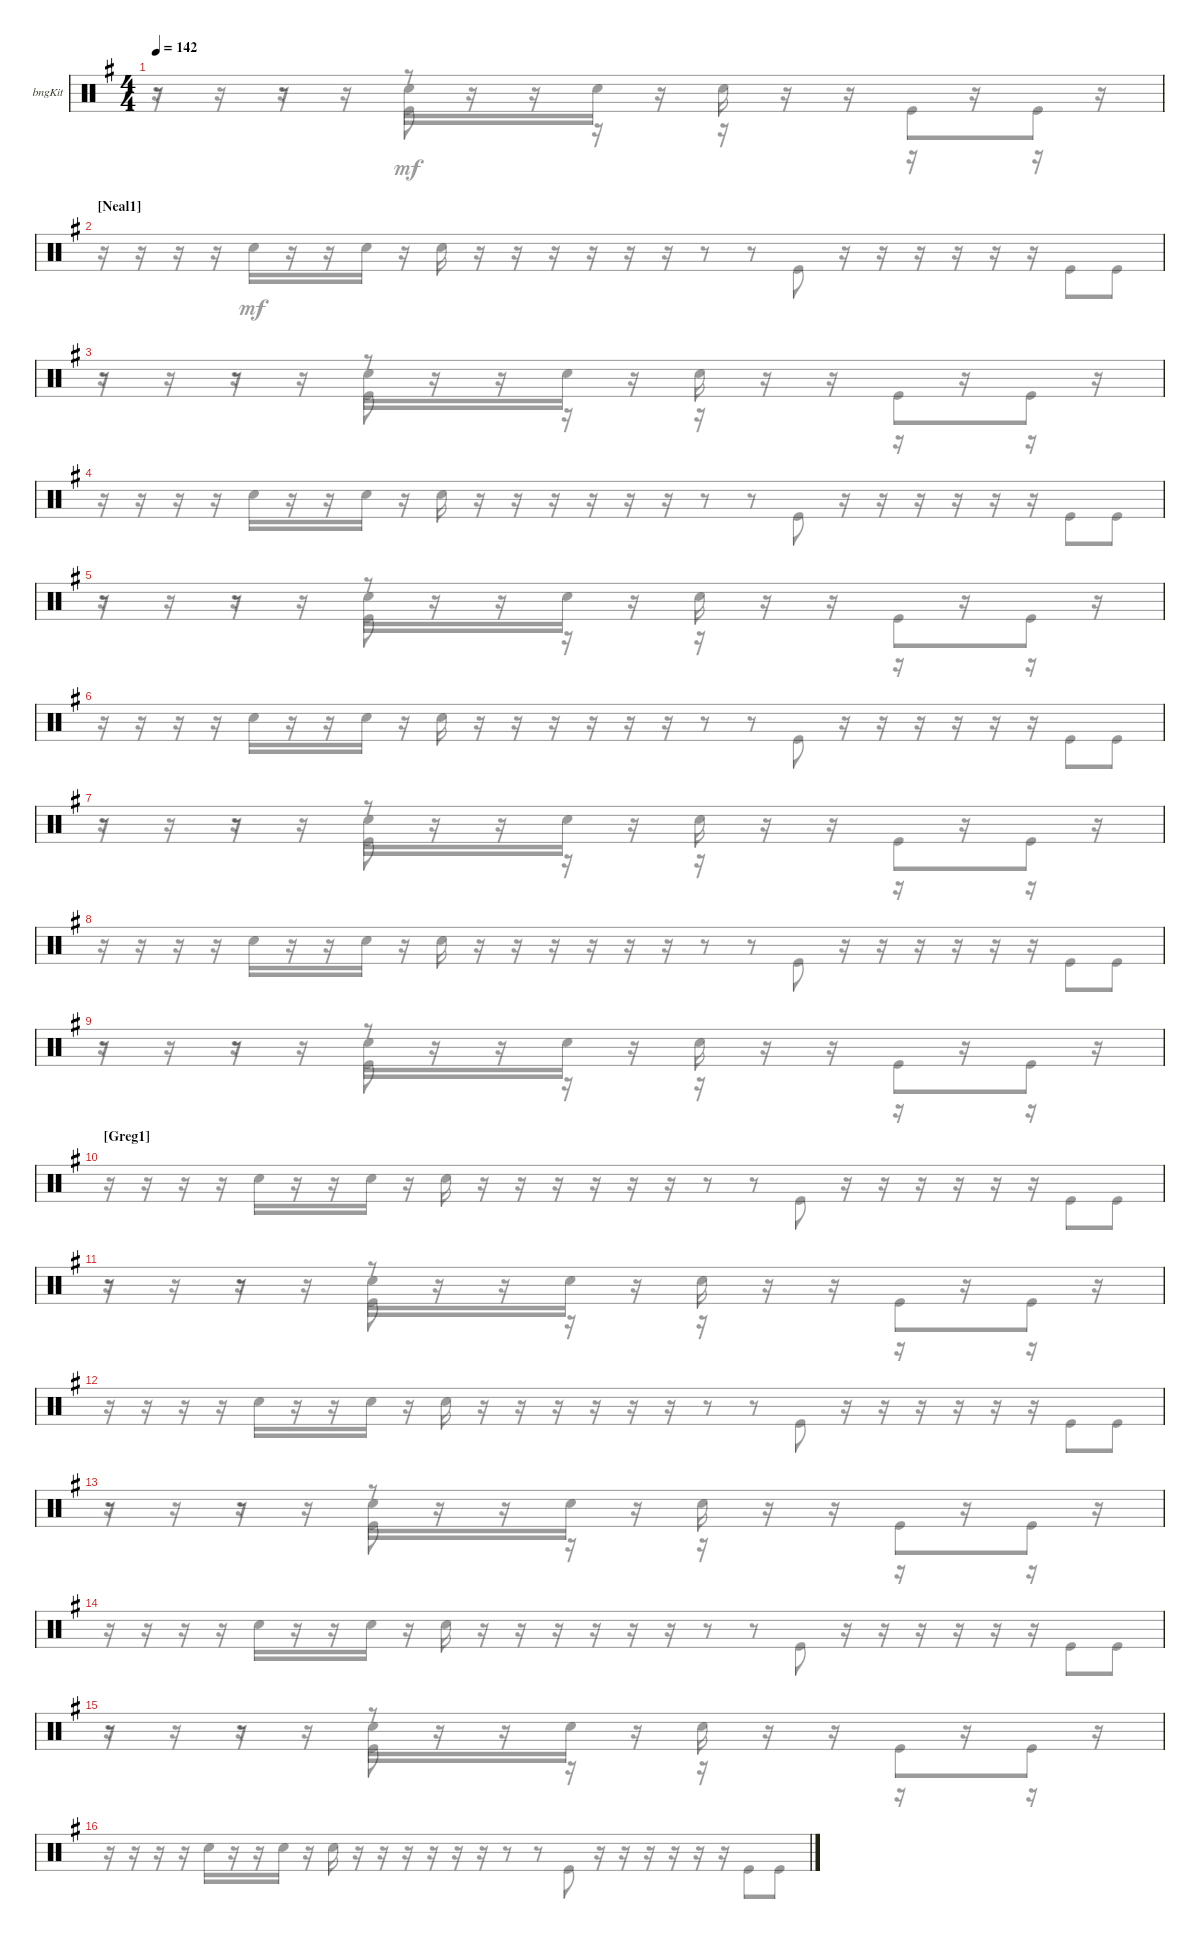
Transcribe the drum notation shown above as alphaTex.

\bracketExtendMode groupsimilarinstruments
\firstSystemTrackNameOrientation horizontal
\otherSystemsTrackNameOrientation horizontal
\track ("Bongos" "bngKit") {instrument percussion}
\staff {score}
\articulation defaults
\voice
\ts (4 4)
\tempo 142
\clef neutral
\ks eminor
|
\section ("" "[Neal1] ")
|
|
|
|
|
|
|
|
\section ("" "[Greg1] ")
|
|
|
|
|
|
\voice
\clef neutral
\ks eminor
r.8{dy mf} r.8 r.8 |
r.16 r.16 r.16 r.16 "Snare (hit) 2".16 r.16 r.16 "Snare (hit) 2".16 r.16 "Snare (hit) 2".16 r.16 r.16 r.16 r.16 r.16 r.16 r.8 r.8 "Kick (hit)".8 r.16 r.16 r.16 r.16 r.16 r.16 "Kick (hit)".8 "Kick (hit)".8 |
r.8 r.8 r.8 |
r.16 r.16 r.16 r.16 "Snare (hit) 2".16 r.16 r.16 "Snare (hit) 2".16 r.16 "Snare (hit) 2".16 r.16 r.16 r.16 r.16 r.16 r.16 r.8 r.8 "Kick (hit)".8 r.16 r.16 r.16 r.16 r.16 r.16 "Kick (hit)".8 "Kick (hit)".8 |
r.8 r.8 r.8 |
r.16 r.16 r.16 r.16 "Snare (hit) 2".16 r.16 r.16 "Snare (hit) 2".16 r.16 "Snare (hit) 2".16 r.16 r.16 r.16 r.16 r.16 r.16 r.8 r.8 "Kick (hit)".8 r.16 r.16 r.16 r.16 r.16 r.16 "Kick (hit)".8 "Kick (hit)".8 |
r.8 r.8 r.8 |
r.16 r.16 r.16 r.16 "Snare (hit) 2".16 r.16 r.16 "Snare (hit) 2".16 r.16 "Snare (hit) 2".16 r.16 r.16 r.16 r.16 r.16 r.16 r.8 r.8 "Kick (hit)".8 r.16 r.16 r.16 r.16 r.16 r.16 "Kick (hit)".8 "Kick (hit)".8 |
r.8 r.8 r.8 |
r.16 r.16 r.16 r.16 "Snare (hit) 2".16 r.16 r.16 "Snare (hit) 2".16 r.16 "Snare (hit) 2".16 r.16 r.16 r.16 r.16 r.16 r.16 r.8 r.8 "Kick (hit)".8 r.16 r.16 r.16 r.16 r.16 r.16 "Kick (hit)".8 "Kick (hit)".8 |
r.8 r.8 r.8 |
r.16 r.16 r.16 r.16 "Snare (hit) 2".16 r.16 r.16 "Snare (hit) 2".16 r.16 "Snare (hit) 2".16 r.16 r.16 r.16 r.16 r.16 r.16 r.8 r.8 "Kick (hit)".8 r.16 r.16 r.16 r.16 r.16 r.16 "Kick (hit)".8 "Kick (hit)".8 |
r.8 r.8 r.8 |
r.16 r.16 r.16 r.16 "Snare (hit) 2".16 r.16 r.16 "Snare (hit) 2".16 r.16 "Snare (hit) 2".16 r.16 r.16 r.16 r.16 r.16 r.16 r.8 r.8 "Kick (hit)".8 r.16 r.16 r.16 r.16 r.16 r.16 "Kick (hit)".8 "Kick (hit)".8 |
r.8 r.8 r.8 |
r.16 r.16 r.16 r.16 "Snare (hit) 2".16 r.16 r.16 "Snare (hit) 2".16 r.16 "Snare (hit) 2".16 r.16 r.16 r.16 r.16 r.16 r.16 r.8 r.8 "Kick (hit)".8 r.16 r.16 r.16 r.16 r.16 r.16 "Kick (hit)".8 "Kick (hit)".8
\voice
\clef neutral
\ottava regular
\simile none
\ks eminor
r.16{dy mf} r.16 r.16 r.16 "Snare (hit) 2".16 r.16 r.16 "Snare (hit) 2".16 r.16 "Snare (hit) 2".16 r.16 r.16 r.16 r.16 r.16 r.16 |
|
r.16 r.16 r.16 r.16 "Snare (hit) 2".16 r.16 r.16 "Snare (hit) 2".16 r.16 "Snare (hit) 2".16 r.16 r.16 r.16 r.16 r.16 r.16 |
|
r.16 r.16 r.16 r.16 "Snare (hit) 2".16 r.16 r.16 "Snare (hit) 2".16 r.16 "Snare (hit) 2".16 r.16 r.16 r.16 r.16 r.16 r.16 |
|
r.16 r.16 r.16 r.16 "Snare (hit) 2".16 r.16 r.16 "Snare (hit) 2".16 r.16 "Snare (hit) 2".16 r.16 r.16 r.16 r.16 r.16 r.16 |
|
r.16 r.16 r.16 r.16 "Snare (hit) 2".16 r.16 r.16 "Snare (hit) 2".16 r.16 "Snare (hit) 2".16 r.16 r.16 r.16 r.16 r.16 r.16 |
|
r.16 r.16 r.16 r.16 "Snare (hit) 2".16 r.16 r.16 "Snare (hit) 2".16 r.16 "Snare (hit) 2".16 r.16 r.16 r.16 r.16 r.16 r.16 |
|
r.16 r.16 r.16 r.16 "Snare (hit) 2".16 r.16 r.16 "Snare (hit) 2".16 r.16 "Snare (hit) 2".16 r.16 r.16 r.16 r.16 r.16 r.16 |
|
r.16 r.16 r.16 r.16 "Snare (hit) 2".16 r.16 r.16 "Snare (hit) 2".16 r.16 "Snare (hit) 2".16 r.16 r.16 r.16 r.16 r.16 r.16 |
\voice
\clef neutral
\ottava regular
\simile none
\ks eminor
r.8{dy mf} r.8 "Kick (hit)".8 r.16 r.16 r.16 r.16 r.16 r.16 "Kick (hit)".8 "Kick (hit)".8 |
|
r.8 r.8 "Kick (hit)".8 r.16 r.16 r.16 r.16 r.16 r.16 "Kick (hit)".8 "Kick (hit)".8 |
|
r.8 r.8 "Kick (hit)".8 r.16 r.16 r.16 r.16 r.16 r.16 "Kick (hit)".8 "Kick (hit)".8 |
|
r.8 r.8 "Kick (hit)".8 r.16 r.16 r.16 r.16 r.16 r.16 "Kick (hit)".8 "Kick (hit)".8 |
|
r.8 r.8 "Kick (hit)".8 r.16 r.16 r.16 r.16 r.16 r.16 "Kick (hit)".8 "Kick (hit)".8 |
|
r.8 r.8 "Kick (hit)".8 r.16 r.16 r.16 r.16 r.16 r.16 "Kick (hit)".8 "Kick (hit)".8 |
|
r.8 r.8 "Kick (hit)".8 r.16 r.16 r.16 r.16 r.16 r.16 "Kick (hit)".8 "Kick (hit)".8 |
|
r.8 r.8 "Kick (hit)".8 r.16 r.16 r.16 r.16 r.16 r.16 "Kick (hit)".8 "Kick (hit)".8 |
